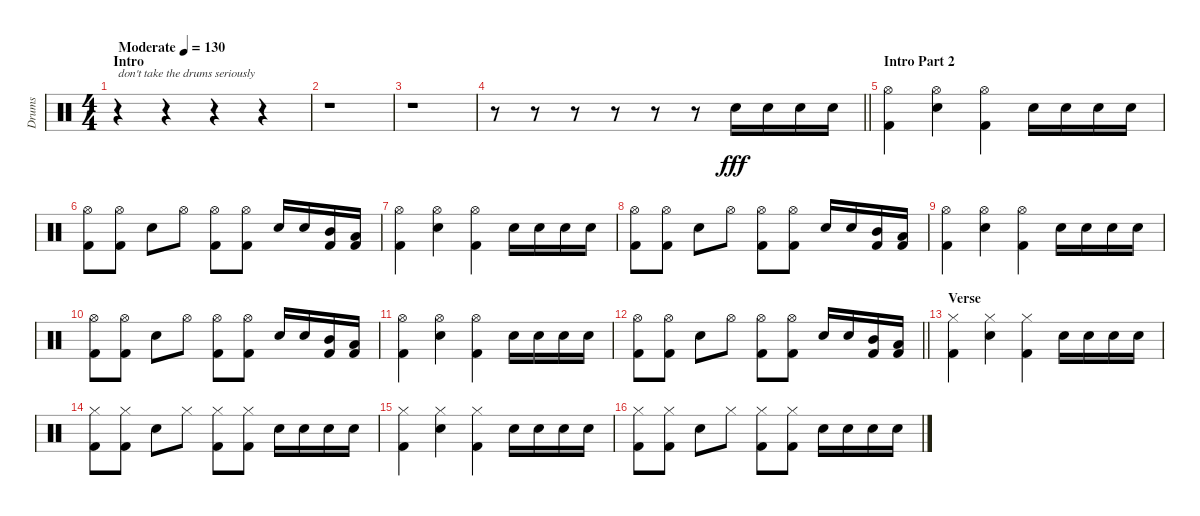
\track ("Drums" "Drums") {instrument percussion}
\staff {score}
\articulation defaults
\ts (4 4)
\section ("" "Intro")
\tempo (130 "Moderate")
\clef neutral
\ks c
r.4{txt "don't take the drums seriously" dy fff} r.4 r.4 r.4 |
r.1 |
r.1 |
\barLineRight lightlight
r.8 r.8 r.8 r.8 r.8 r.8 "Electric Snare (hit)".16 "Electric Snare (hit)".16 "Electric Snare (hit)".16 "Electric Snare (hit)".16 |
\section ("" "Intro Part 2")
("Hi-Hat (open)" "Kick (hit) 2").4 ("Hi-Hat (open)" "Electric Snare (hit)").4 ("Hi-Hat (open)" "Kick (hit) 2").4 "Electric Snare (hit)".16 "Electric Snare (hit)".16 "Electric Snare (hit)".16 "Electric Snare (hit)".16 |
("Hi-Hat (open)" "Kick (hit) 2").8 ("Hi-Hat (open)" "Kick (hit) 2").8 "Electric Snare (hit)".8 "Hi-Hat (open)".8 ("Hi-Hat (open)" "Kick (hit) 2").8 ("Hi-Hat (open)" "Kick (hit) 2").8 "Electric Snare (hit)".16 "Electric Snare (hit)".16 ("Mid Tom (hit)" "Kick (hit) 2").16 ("Low Tom (hit)" "Kick (hit) 2").16 |
("Hi-Hat (open)" "Kick (hit) 2").4 ("Hi-Hat (open)" "Electric Snare (hit)").4 ("Hi-Hat (open)" "Kick (hit) 2").4 "Electric Snare (hit)".16 "Electric Snare (hit)".16 "Electric Snare (hit)".16 "Electric Snare (hit)".16 |
("Hi-Hat (open)" "Kick (hit) 2").8 ("Hi-Hat (open)" "Kick (hit) 2").8 "Electric Snare (hit)".8 "Hi-Hat (open)".8 ("Hi-Hat (open)" "Kick (hit) 2").8 ("Hi-Hat (open)" "Kick (hit) 2").8 "Electric Snare (hit)".16 "Electric Snare (hit)".16 ("Mid Tom (hit)" "Kick (hit) 2").16 ("Low Tom (hit)" "Kick (hit) 2").16 |
("Hi-Hat (open)" "Kick (hit) 2").4 ("Hi-Hat (open)" "Electric Snare (hit)").4 ("Hi-Hat (open)" "Kick (hit) 2").4 "Electric Snare (hit)".16 "Electric Snare (hit)".16 "Electric Snare (hit)".16 "Electric Snare (hit)".16 |
("Hi-Hat (open)" "Kick (hit) 2").8 ("Hi-Hat (open)" "Kick (hit) 2").8 "Electric Snare (hit)".8 "Hi-Hat (open)".8 ("Hi-Hat (open)" "Kick (hit) 2").8 ("Hi-Hat (open)" "Kick (hit) 2").8 "Electric Snare (hit)".16 "Electric Snare (hit)".16 ("Mid Tom (hit)" "Kick (hit) 2").16 ("Low Tom (hit)" "Kick (hit) 2").16 |
("Hi-Hat (open)" "Kick (hit) 2").4 ("Hi-Hat (open)" "Electric Snare (hit)").4 ("Hi-Hat (open)" "Kick (hit) 2").4 "Electric Snare (hit)".16 "Electric Snare (hit)".16 "Electric Snare (hit)".16 "Electric Snare (hit)".16 |
\barLineRight lightlight
("Hi-Hat (open)" "Kick (hit) 2").8 ("Hi-Hat (open)" "Kick (hit) 2").8 "Electric Snare (hit)".8 "Hi-Hat (open)".8 ("Hi-Hat (open)" "Kick (hit) 2").8 ("Hi-Hat (open)" "Kick (hit) 2").8 "Electric Snare (hit)".16 "Electric Snare (hit)".16 ("Mid Tom (hit)" "Kick (hit) 2").16 ("Low Tom (hit)" "Kick (hit) 2").16 |
\section ("" "Verse")
("Hi-Hat (closed)" "Kick (hit) 2").4 ("Hi-Hat (closed)" "Electric Snare (hit)").4 ("Hi-Hat (closed)" "Kick (hit) 2").4 "Electric Snare (hit)".16 "Electric Snare (hit)".16 "Electric Snare (hit)".16 "Electric Snare (hit)".16 |
("Hi-Hat (closed)" "Kick (hit) 2").8 ("Hi-Hat (closed)" "Kick (hit) 2").8 "Electric Snare (hit)".8 "Hi-Hat (closed)".8 ("Hi-Hat (closed)" "Kick (hit) 2").8 ("Hi-Hat (closed)" "Kick (hit) 2").8 "Electric Snare (hit)".16 "Electric Snare (hit)".16 "Electric Snare (hit)".16 "Electric Snare (hit)".16 |
("Hi-Hat (closed)" "Kick (hit) 2").4 ("Hi-Hat (closed)" "Electric Snare (hit)").4 ("Hi-Hat (closed)" "Kick (hit) 2").4 "Electric Snare (hit)".16 "Electric Snare (hit)".16 "Electric Snare (hit)".16 "Electric Snare (hit)".16 |
("Hi-Hat (closed)" "Kick (hit) 2").8 ("Hi-Hat (closed)" "Kick (hit) 2").8 "Electric Snare (hit)".8 "Hi-Hat (closed)".8 ("Hi-Hat (closed)" "Kick (hit) 2").8 ("Hi-Hat (closed)" "Kick (hit) 2").8 "Electric Snare (hit)".16 "Electric Snare (hit)".16 "Electric Snare (hit)".16 "Electric Snare (hit)".16
